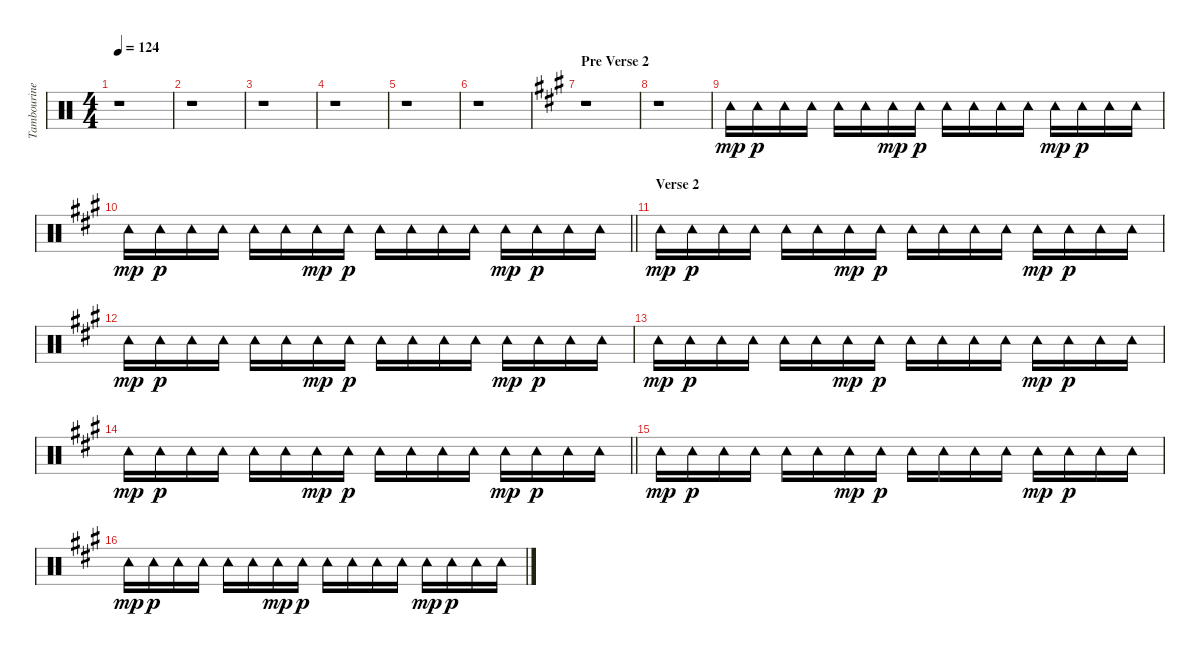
\track ("Tambourine" "Tambourine") {instrument percussion}
\staff {score}
\articulation defaults
\ts (4 4)
\tempo 124
\clef neutral
\ks aminor
r.1{dy p} |
r.1 |
r.1 |
r.1 |
r.1 |
r.1 |
\section ("" "Pre Verse 2")
\ks a
r.1 |
r.1 |
"Tambourine (hit)".16{dy mp} "Tambourine (hit)".16{dy p} "Tambourine (hit)".16 "Tambourine (hit)".16 "Tambourine (hit)".16 "Tambourine (hit)".16 "Tambourine (hit)".16{dy mp} "Tambourine (hit)".16{dy p} "Tambourine (hit)".16 "Tambourine (hit)".16 "Tambourine (hit)".16 "Tambourine (hit)".16 "Tambourine (hit)".16{dy mp} "Tambourine (hit)".16{dy p} "Tambourine (hit)".16 "Tambourine (hit)".16 |
\barLineRight lightlight "Tambourine (hit)".16{dy mp} "Tambourine (hit)".16{dy p} "Tambourine (hit)".16 "Tambourine (hit)".16 "Tambourine (hit)".16 "Tambourine (hit)".16 "Tambourine (hit)".16{dy mp} "Tambourine (hit)".16{dy p} "Tambourine (hit)".16 "Tambourine (hit)".16 "Tambourine (hit)".16 "Tambourine (hit)".16 "Tambourine (hit)".16{dy mp} "Tambourine (hit)".16{dy p} "Tambourine (hit)".16 "Tambourine (hit)".16
|
\section ("" "Verse 2")
"Tambourine (hit)".16{dy mp} "Tambourine (hit)".16{dy p} "Tambourine (hit)".16 "Tambourine (hit)".16 "Tambourine (hit)".16 "Tambourine (hit)".16 "Tambourine (hit)".16{dy mp} "Tambourine (hit)".16{dy p} "Tambourine (hit)".16 "Tambourine (hit)".16 "Tambourine (hit)".16 "Tambourine (hit)".16 "Tambourine (hit)".16{dy mp} "Tambourine (hit)".16{dy p} "Tambourine (hit)".16 "Tambourine (hit)".16 |
"Tambourine (hit)".16{dy mp} "Tambourine (hit)".16{dy p} "Tambourine (hit)".16 "Tambourine (hit)".16 "Tambourine (hit)".16 "Tambourine (hit)".16 "Tambourine (hit)".16{dy mp} "Tambourine (hit)".16{dy p} "Tambourine (hit)".16 "Tambourine (hit)".16 "Tambourine (hit)".16 "Tambourine (hit)".16 "Tambourine (hit)".16{dy mp} "Tambourine (hit)".16{dy p} "Tambourine (hit)".16 "Tambourine (hit)".16 |
"Tambourine (hit)".16{dy mp} "Tambourine (hit)".16{dy p} "Tambourine (hit)".16 "Tambourine (hit)".16 "Tambourine (hit)".16 "Tambourine (hit)".16 "Tambourine (hit)".16{dy mp} "Tambourine (hit)".16{dy p} "Tambourine (hit)".16 "Tambourine (hit)".16 "Tambourine (hit)".16 "Tambourine (hit)".16 "Tambourine (hit)".16{dy mp} "Tambourine (hit)".16{dy p} "Tambourine (hit)".16 "Tambourine (hit)".16 |
\barLineRight lightlight "Tambourine (hit)".16{dy mp} "Tambourine (hit)".16{dy p} "Tambourine (hit)".16 "Tambourine (hit)".16 "Tambourine (hit)".16 "Tambourine (hit)".16 "Tambourine (hit)".16{dy mp} "Tambourine (hit)".16{dy p} "Tambourine (hit)".16 "Tambourine (hit)".16 "Tambourine (hit)".16 "Tambourine (hit)".16 "Tambourine (hit)".16{dy mp} "Tambourine (hit)".16{dy p} "Tambourine (hit)".16 "Tambourine (hit)".16
|
"Tambourine (hit)".16{dy mp} "Tambourine (hit)".16{dy p} "Tambourine (hit)".16 "Tambourine (hit)".16 "Tambourine (hit)".16 "Tambourine (hit)".16 "Tambourine (hit)".16{dy mp} "Tambourine (hit)".16{dy p} "Tambourine (hit)".16 "Tambourine (hit)".16 "Tambourine (hit)".16 "Tambourine (hit)".16 "Tambourine (hit)".16{dy mp} "Tambourine (hit)".16{dy p} "Tambourine (hit)".16 "Tambourine (hit)".16 |
"Tambourine (hit)".16{dy mp} "Tambourine (hit)".16{dy p} "Tambourine (hit)".16 "Tambourine (hit)".16 "Tambourine (hit)".16 "Tambourine (hit)".16 "Tambourine (hit)".16{dy mp} "Tambourine (hit)".16{dy p} "Tambourine (hit)".16 "Tambourine (hit)".16 "Tambourine (hit)".16 "Tambourine (hit)".16 "Tambourine (hit)".16{dy mp} "Tambourine (hit)".16{dy p} "Tambourine (hit)".16 "Tambourine (hit)".16
